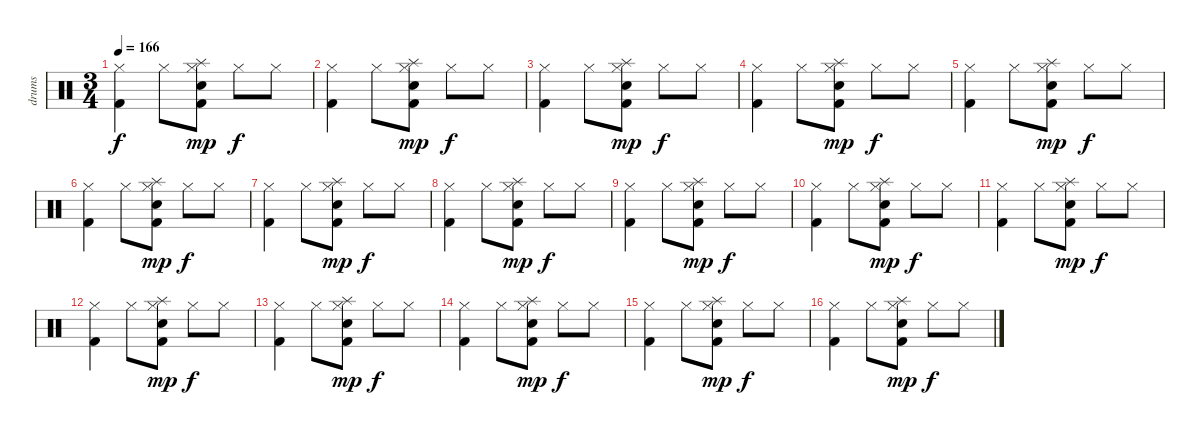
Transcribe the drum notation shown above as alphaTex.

\track ("drums" "drums") {instrument percussion}
\staff {score}
\articulation defaults
\ts (3 4)
\tempo 166
\clef neutral
\ks c
("Hi-Hat (closed)" "Kick (hit) 2").4{dy f} "Hi-Hat (closed)".8 ("Splash (hit)" "Hi-Hat (closed)" "Electric Snare (hit)" "Kick (hit) 2").8{dy mp} "Hi-Hat (closed)".8{dy f} "Hi-Hat (closed)".8 |
("Hi-Hat (closed)" "Kick (hit) 2").4 "Hi-Hat (closed)".8 ("Splash (hit)" "Hi-Hat (closed)" "Electric Snare (hit)" "Kick (hit) 2").8{dy mp} "Hi-Hat (closed)".8{dy f} "Hi-Hat (closed)".8 |
("Hi-Hat (closed)" "Kick (hit) 2").4 "Hi-Hat (closed)".8 ("Splash (hit)" "Hi-Hat (closed)" "Electric Snare (hit)" "Kick (hit) 2").8{dy mp} "Hi-Hat (closed)".8{dy f} "Hi-Hat (closed)".8 |
("Hi-Hat (closed)" "Kick (hit) 2").4 "Hi-Hat (closed)".8 ("Splash (hit)" "Hi-Hat (closed)" "Electric Snare (hit)" "Kick (hit) 2").8{dy mp} "Hi-Hat (closed)".8{dy f} "Hi-Hat (closed)".8 |
("Hi-Hat (closed)" "Kick (hit) 2").4 "Hi-Hat (closed)".8 ("Splash (hit)" "Hi-Hat (closed)" "Electric Snare (hit)" "Kick (hit) 2").8{dy mp} "Hi-Hat (closed)".8{dy f} "Hi-Hat (closed)".8 |
("Hi-Hat (closed)" "Kick (hit) 2").4 "Hi-Hat (closed)".8 ("Splash (hit)" "Hi-Hat (closed)" "Electric Snare (hit)" "Kick (hit) 2").8{dy mp} "Hi-Hat (closed)".8{dy f} "Hi-Hat (closed)".8 |
("Hi-Hat (closed)" "Kick (hit) 2").4 "Hi-Hat (closed)".8 ("Splash (hit)" "Hi-Hat (closed)" "Electric Snare (hit)" "Kick (hit) 2").8{dy mp} "Hi-Hat (closed)".8{dy f} "Hi-Hat (closed)".8 |
("Hi-Hat (closed)" "Kick (hit) 2").4 "Hi-Hat (closed)".8 ("Splash (hit)" "Hi-Hat (closed)" "Electric Snare (hit)" "Kick (hit) 2").8{dy mp} "Hi-Hat (closed)".8{dy f} "Hi-Hat (closed)".8 |
("Hi-Hat (closed)" "Kick (hit) 2").4 "Hi-Hat (closed)".8 ("Splash (hit)" "Hi-Hat (closed)" "Electric Snare (hit)" "Kick (hit) 2").8{dy mp} "Hi-Hat (closed)".8{dy f} "Hi-Hat (closed)".8 |
("Hi-Hat (closed)" "Kick (hit) 2").4 "Hi-Hat (closed)".8 ("Splash (hit)" "Hi-Hat (closed)" "Electric Snare (hit)" "Kick (hit) 2").8{dy mp} "Hi-Hat (closed)".8{dy f} "Hi-Hat (closed)".8 |
("Hi-Hat (closed)" "Kick (hit) 2").4 "Hi-Hat (closed)".8 ("Splash (hit)" "Hi-Hat (closed)" "Electric Snare (hit)" "Kick (hit) 2").8{dy mp} "Hi-Hat (closed)".8{dy f} "Hi-Hat (closed)".8 |
("Hi-Hat (closed)" "Kick (hit) 2").4 "Hi-Hat (closed)".8 ("Splash (hit)" "Hi-Hat (closed)" "Electric Snare (hit)" "Kick (hit) 2").8{dy mp} "Hi-Hat (closed)".8{dy f} "Hi-Hat (closed)".8 |
("Hi-Hat (closed)" "Kick (hit) 2").4 "Hi-Hat (closed)".8 ("Splash (hit)" "Hi-Hat (closed)" "Electric Snare (hit)" "Kick (hit) 2").8{dy mp} "Hi-Hat (closed)".8{dy f} "Hi-Hat (closed)".8 |
("Hi-Hat (closed)" "Kick (hit) 2").4 "Hi-Hat (closed)".8 ("Splash (hit)" "Hi-Hat (closed)" "Electric Snare (hit)" "Kick (hit) 2").8{dy mp} "Hi-Hat (closed)".8{dy f} "Hi-Hat (closed)".8 |
("Hi-Hat (closed)" "Kick (hit) 2").4 "Hi-Hat (closed)".8 ("Splash (hit)" "Hi-Hat (closed)" "Electric Snare (hit)" "Kick (hit) 2").8{dy mp} "Hi-Hat (closed)".8{dy f} "Hi-Hat (closed)".8 |
("Hi-Hat (closed)" "Kick (hit) 2").4 "Hi-Hat (closed)".8 ("Splash (hit)" "Hi-Hat (closed)" "Electric Snare (hit)" "Kick (hit) 2").8{dy mp} "Hi-Hat (closed)".8{dy f} "Hi-Hat (closed)".8
